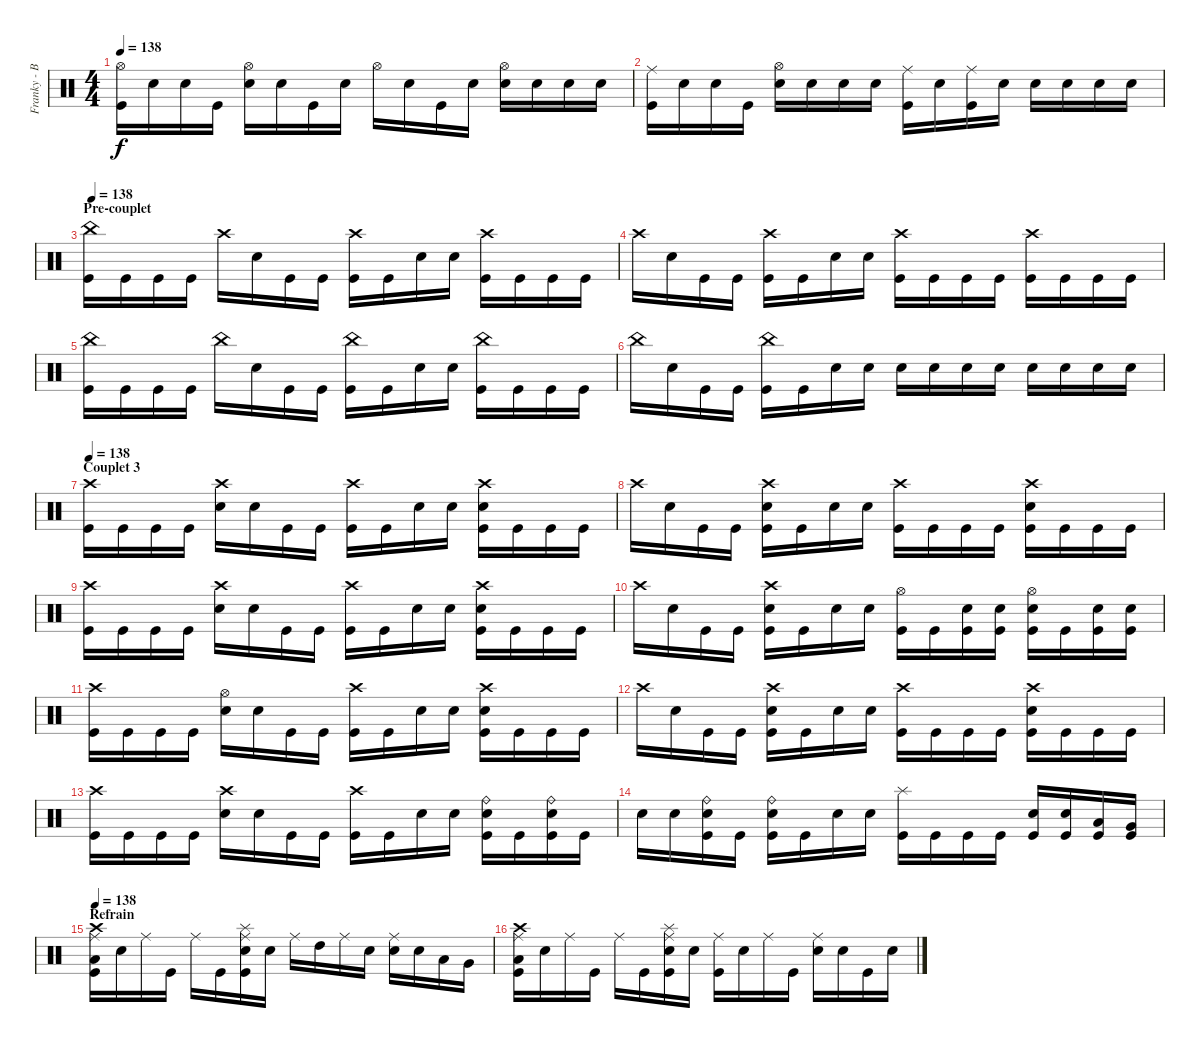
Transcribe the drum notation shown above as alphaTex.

\track ("Franky - Batterie" "Franky - B") {instrument percussion}
\staff {score}
\articulation defaults
\ts (4 4)
\tempo 138
\clef neutral
\ks c
("Hi-Hat (open)" "Kick (hit)").16{dy f} "Snare (hit)".16 "Snare (hit)".16 "Kick (hit)".16 ("Hi-Hat (open)" "Electric Snare (hit)").16 "Snare (hit)".16 "Kick (hit)".16 "Snare (hit)".16 "Hi-Hat (open)".16 "Snare (hit)".16 "Kick (hit)".16 "Snare (hit)".16 ("Hi-Hat (open)" "Electric Snare (hit)").16 "Electric Snare (hit)".16 "Electric Snare (hit)".16 "Electric Snare (hit)".16 |
("Ride (middle)" "Kick (hit)").16 "Electric Snare (hit)".16 "Snare (hit)".16 "Kick (hit)".16 ("Hi-Hat (open)" "Electric Snare (hit)").16 "Electric Snare (hit)".16 "Electric Snare (hit)".16 "Snare (hit)".16 ("Ride (middle)" "Kick (hit)").16 "Electric Snare (hit)".16 ("Ride (middle)" "Kick (hit)").16 "Electric Snare (hit)".16 "Electric Snare (hit)".16 "Snare (hit)".16 "Snare (hit)".16 "Snare (hit)".16 |
\section ("" "Pre-couplet")
\tempo 138
("China (hit)" "Kick (hit)").16{volume 16 balance 8} "Kick (hit)".16 "Kick (hit)".16 "Kick (hit)".16 "Crash high (hit)".16 "Snare (hit)".16 "Kick (hit)".16 "Kick (hit)".16 ("Crash high (hit)" "Kick (hit)").16 "Kick (hit)".16 "Snare (hit)".16 "Snare (hit)".16 ("Crash high (hit)" "Kick (hit)").16 "Kick (hit)".16 "Kick (hit)".16 "Kick (hit)".16 |
"Crash high (hit)".16 "Snare (hit)".16 "Kick (hit)".16 "Kick (hit)".16 ("Crash high (hit)" "Kick (hit)").16 "Kick (hit)".16 "Snare (hit)".16 "Snare (hit)".16 ("Crash high (hit)" "Kick (hit)").16 "Kick (hit)".16 "Kick (hit)".16 "Kick (hit)".16 ("Crash high (hit)" "Kick (hit)").16 "Kick (hit)".16 "Kick (hit)".16 "Kick (hit)".16 |
("China (hit)" "Kick (hit)").16 "Kick (hit)".16 "Kick (hit)".16 "Kick (hit)".16 "China (hit)".16 "Snare (hit)".16 "Kick (hit)".16 "Kick (hit)".16 ("China (hit)" "Kick (hit)").16 "Kick (hit)".16 "Snare (hit)".16 "Snare (hit)".16 ("China (hit)" "Kick (hit)").16 "Kick (hit)".16 "Kick (hit)".16 "Kick (hit)".16 |
"China (hit)".16 "Snare (hit)".16 "Kick (hit)".16 "Kick (hit)".16 ("China (hit)" "Kick (hit)").16 "Kick (hit)".16 "Snare (hit)".16 "Snare (hit)".16 "Snare (hit)".16 "Snare (hit)".16 "Snare (hit)".16 "Snare (hit)".16 "Snare (hit)".16 "Snare (hit)".16 "Snare (hit)".16 "Snare (hit)".16 |
\section ("" "Couplet 3")
\tempo 138
("Crash high (hit)" "Kick (hit)").16{volume 16 balance 8} "Kick (hit)".16 "Kick (hit)".16 "Kick (hit)".16 ("Crash high (hit)" "Electric Snare (hit)").16 "Snare (hit)".16 "Kick (hit)".16 "Kick (hit)".16 ("Crash high (hit)" "Kick (hit)").16 "Kick (hit)".16 "Snare (hit)".16 "Snare (hit)".16 ("Crash high (hit)" "Electric Snare (hit)" "Kick (hit)").16 "Kick (hit)".16 "Kick (hit)".16 "Kick (hit)".16 |
"Crash high (hit)".16 "Snare (hit)".16 "Kick (hit)".16 "Kick (hit)".16 ("Crash high (hit)" "Electric Snare (hit)" "Kick (hit)").16 "Kick (hit)".16 "Snare (hit)".16 "Snare (hit)".16 ("Crash high (hit)" "Kick (hit)").16 "Kick (hit)".16 "Kick (hit)".16 "Kick (hit)".16 ("Crash high (hit)" "Electric Snare (hit)" "Kick (hit)").16 "Kick (hit)".16 "Kick (hit)".16 "Kick (hit)".16 |
("Crash high (hit)" "Kick (hit)").16 "Kick (hit)".16 "Kick (hit)".16 "Kick (hit)".16 ("Crash high (hit)" "Electric Snare (hit)").16 "Snare (hit)".16 "Kick (hit)".16 "Kick (hit)".16 ("Crash high (hit)" "Kick (hit)").16 "Kick (hit)".16 "Snare (hit)".16 "Snare (hit)".16 ("Crash high (hit)" "Electric Snare (hit)" "Kick (hit)").16 "Kick (hit)".16 "Kick (hit)".16 "Kick (hit)".16 |
"Crash high (hit)".16 "Snare (hit)".16 "Kick (hit)".16 "Kick (hit)".16 ("Crash high (hit)" "Electric Snare (hit)" "Kick (hit)").16 "Kick (hit)".16 "Snare (hit)".16 "Snare (hit)".16 ("Hi-Hat (open)" "Kick (hit)").16 "Kick (hit)".16 ("Electric Snare (hit)" "Kick (hit)").16 ("Electric Snare (hit)" "Kick (hit)").16 ("Hi-Hat (open)" "Electric Snare (hit)" "Kick (hit)").16 "Kick (hit)".16 ("Electric Snare (hit)" "Kick (hit)").16 ("Electric Snare (hit)" "Kick (hit)").16 |
("Crash high (hit)" "Kick (hit)").16 "Kick (hit)".16 "Kick (hit)".16 "Kick (hit)".16 ("Hi-Hat (open)" "Electric Snare (hit)").16 "Snare (hit)".16 "Kick (hit)".16 "Kick (hit)".16 ("Crash high (hit)" "Kick (hit)").16 "Kick (hit)".16 "Snare (hit)".16 "Snare (hit)".16 ("Crash high (hit)" "Electric Snare (hit)" "Kick (hit)").16 "Kick (hit)".16 "Kick (hit)".16 "Kick (hit)".16 |
"Crash high (hit)".16 "Snare (hit)".16 "Kick (hit)".16 "Kick (hit)".16 ("Crash high (hit)" "Electric Snare (hit)" "Kick (hit)").16 "Kick (hit)".16 "Snare (hit)".16 "Snare (hit)".16 ("Crash high (hit)" "Kick (hit)").16 "Kick (hit)".16 "Kick (hit)".16 "Kick (hit)".16 ("Crash high (hit)" "Electric Snare (hit)" "Kick (hit)").16 "Kick (hit)".16 "Kick (hit)".16 "Kick (hit)".16 |
("Crash high (hit)" "Kick (hit)").16 "Kick (hit)".16 "Kick (hit)".16 "Kick (hit)".16 ("Crash high (hit)" "Electric Snare (hit)").16 "Snare (hit)".16 "Kick (hit)".16 "Kick (hit)".16 ("Crash high (hit)" "Kick (hit)").16 "Kick (hit)".16 "Snare (hit)".16 "Snare (hit)".16 ("Ride (bell)" "Electric Snare (hit)" "Kick (hit)").16 "Kick (hit)".16 ("Ride (bell)" "Electric Snare (hit)" "Kick (hit)").16 "Kick (hit)".16 |
"Snare (hit)".16 "Snare (hit)".16 ("Ride (bell)" "Electric Snare (hit)" "Kick (hit)").16 "Kick (hit)".16 ("Ride (bell)" "Electric Snare (hit)" "Kick (hit)").16 "Kick (hit)".16 "Snare (hit)".16 "Snare (hit)".16 ("Splash (hit)" "Kick (hit)").16 "Kick (hit)".16 "Kick (hit)".16 "Kick (hit)".16 ("Electric Snare (hit)" "Kick (hit)").16 ("Electric Snare (hit)" "Kick (hit)").16 ("Low Tom (hit)" "Kick (hit)").16 ("Very Low Tom (hit)" "Kick (hit)").16 |
\section ("" "Refrain")
\tempo 138
("Crash high (hit)" "Ride (middle)" "Low Floor Tom (hit)" "Kick (hit)").16{volume 16 balance 8} "Snare (hit)".16 "Ride (middle)".16 "Kick (hit)".16 "Ride (middle)".16 "Kick (hit)".16 ("Splash (hit)" "Ride (middle)" "Electric Snare (hit)" "Kick (hit)").16 "Snare (hit)".16 "Ride (middle)".16 "High Tom (hit)".16 "Ride (middle)".16 "Snare (hit)".16 ("Ride (middle)" "Electric Snare (hit)").16 "Snare (hit)".16 "Low Tom (hit)".16 "Very Low Tom (hit)".16 |
("Crash high (hit)" "Ride (middle)" "Low Floor Tom (hit)" "Kick (hit)").16 "Snare (hit)".16 "Ride (middle)".16 "Kick (hit)".16 "Ride (middle)".16 "Kick (hit)".16 ("Splash (hit)" "Ride (middle)" "Electric Snare (hit)" "Kick (hit)").16 "Snare (hit)".16 ("Ride (middle)" "Kick (hit)").16 "Snare (hit)".16 "Ride (middle)".16 "Kick (hit)".16 ("Ride (middle)" "Electric Snare (hit)").16 "Snare (hit)".16 "Kick (hit)".16 "Snare (hit)".16
